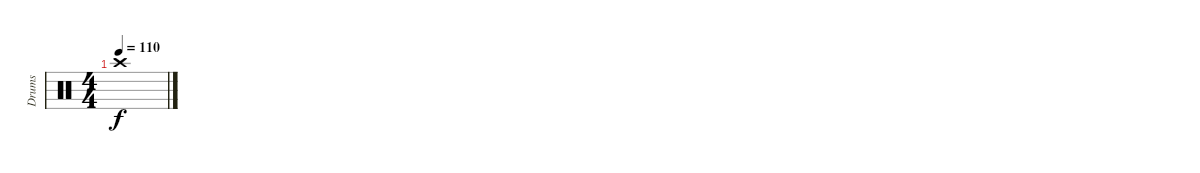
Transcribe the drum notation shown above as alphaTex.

\track ("Drums" "Drums") {instrument percussion}
\staff {score}
\articulation defaults
\ts (4 4)
\tempo 110
\clef neutral
\ks c "Crash high (hit)".1{dy f}
